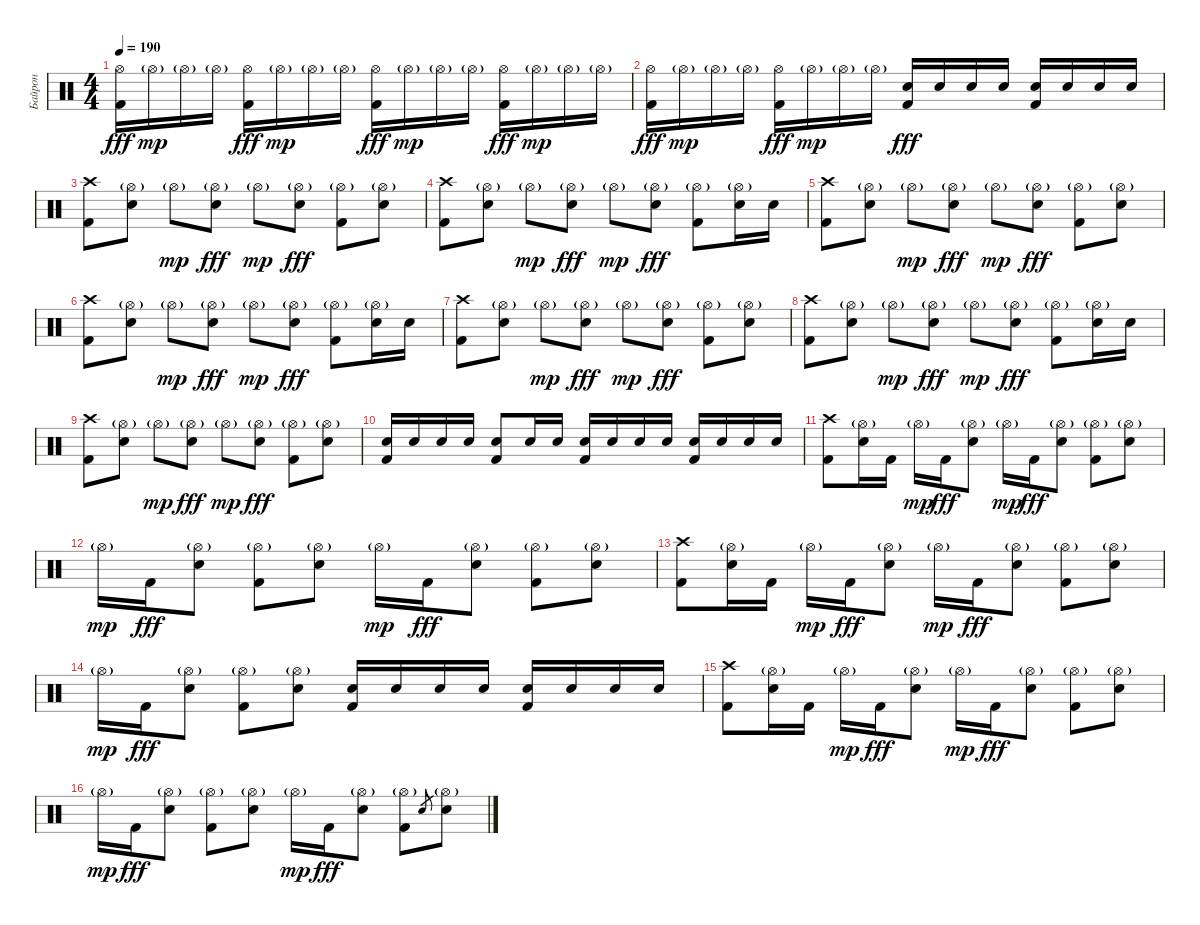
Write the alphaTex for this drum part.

\track ("Байрон" "Байрон") {instrument percussion}
\staff {score}
\articulation defaults
\ts (4 4)
\tempo 190
\clef neutral
\ks c
("Hi-Hat (open)" "Kick (hit) 2").16{dy fff} "Hi-Hat (open)"{g}.16{dy mp} "Hi-Hat (open)"{g}.16 "Hi-Hat (open)"{g}.16 ("Hi-Hat (open)" "Kick (hit) 2").16{dy fff} "Hi-Hat (open)"{g}.16{dy mp} "Hi-Hat (open)"{g}.16 "Hi-Hat (open)"{g}.16 ("Hi-Hat (open)" "Kick (hit) 2").16{dy fff} "Hi-Hat (open)"{g}.16{dy mp} "Hi-Hat (open)"{g}.16 "Hi-Hat (open)"{g}.16 ("Hi-Hat (open)" "Kick (hit) 2").16{dy fff} "Hi-Hat (open)"{g}.16{dy mp} "Hi-Hat (open)"{g}.16 "Hi-Hat (open)"{g}.16 |
("Hi-Hat (open)" "Kick (hit) 2").16{dy fff} "Hi-Hat (open)"{g}.16{dy mp} "Hi-Hat (open)"{g}.16 "Hi-Hat (open)"{g}.16 ("Hi-Hat (open)" "Kick (hit) 2").16{dy fff} "Hi-Hat (open)"{g}.16{dy mp} "Hi-Hat (open)"{g}.16 "Hi-Hat (open)"{g}.16 ("Electric Snare (hit)" "Kick (hit) 2").16{dy fff} "Electric Snare (hit)".16 "Electric Snare (hit)".16 "Electric Snare (hit)".16 ("Electric Snare (hit)" "Kick (hit) 2").16 "Electric Snare (hit)".16 "Electric Snare (hit)".16 "Electric Snare (hit)".16 |
("Crash high (hit)" "Kick (hit) 2").8 ("Hi-Hat (open)"{g} "Electric Snare (hit)").8 "Hi-Hat (open)"{g}.8{dy mp} ("Hi-Hat (open)"{g} "Electric Snare (hit)").8{dy fff} "Hi-Hat (open)"{g}.8{dy mp} ("Hi-Hat (open)"{g} "Electric Snare (hit)").8{dy fff} ("Hi-Hat (open)"{g} "Kick (hit) 2").8 ("Hi-Hat (open)"{g} "Electric Snare (hit)").8 |
("Crash high (hit)" "Kick (hit) 2").8 ("Hi-Hat (open)"{g} "Electric Snare (hit)").8 "Hi-Hat (open)"{g}.8{dy mp} ("Hi-Hat (open)"{g} "Electric Snare (hit)").8{dy fff} "Hi-Hat (open)"{g}.8{dy mp} ("Hi-Hat (open)"{g} "Electric Snare (hit)").8{dy fff} ("Hi-Hat (open)"{g} "Kick (hit) 2").8 ("Hi-Hat (open)"{g} "Electric Snare (hit)").16 "Electric Snare (hit)".16 |
("Crash high (hit)" "Kick (hit) 2").8 ("Hi-Hat (open)"{g} "Electric Snare (hit)").8 "Hi-Hat (open)"{g}.8{dy mp} ("Hi-Hat (open)"{g} "Electric Snare (hit)").8{dy fff} "Hi-Hat (open)"{g}.8{dy mp} ("Hi-Hat (open)"{g} "Electric Snare (hit)").8{dy fff} ("Hi-Hat (open)"{g} "Kick (hit) 2").8 ("Hi-Hat (open)"{g} "Electric Snare (hit)").8 |
("Crash high (hit)" "Kick (hit) 2").8 ("Hi-Hat (open)"{g} "Electric Snare (hit)").8 "Hi-Hat (open)"{g}.8{dy mp} ("Hi-Hat (open)"{g} "Electric Snare (hit)").8{dy fff} "Hi-Hat (open)"{g}.8{dy mp} ("Hi-Hat (open)"{g} "Electric Snare (hit)").8{dy fff} ("Hi-Hat (open)"{g} "Kick (hit) 2").8 ("Hi-Hat (open)"{g} "Electric Snare (hit)").16 "Electric Snare (hit)".16 |
("Crash high (hit)" "Kick (hit) 2").8 ("Hi-Hat (open)"{g} "Electric Snare (hit)").8 "Hi-Hat (open)"{g}.8{dy mp} ("Hi-Hat (open)"{g} "Electric Snare (hit)").8{dy fff} "Hi-Hat (open)"{g}.8{dy mp} ("Hi-Hat (open)"{g} "Electric Snare (hit)").8{dy fff} ("Hi-Hat (open)"{g} "Kick (hit) 2").8 ("Hi-Hat (open)"{g} "Electric Snare (hit)").8 |
("Crash high (hit)" "Kick (hit) 2").8 ("Hi-Hat (open)"{g} "Electric Snare (hit)").8 "Hi-Hat (open)"{g}.8{dy mp} ("Hi-Hat (open)"{g} "Electric Snare (hit)").8{dy fff} "Hi-Hat (open)"{g}.8{dy mp} ("Hi-Hat (open)"{g} "Electric Snare (hit)").8{dy fff} ("Hi-Hat (open)"{g} "Kick (hit) 2").8 ("Hi-Hat (open)"{g} "Electric Snare (hit)").16 "Electric Snare (hit)".16 |
("Crash high (hit)" "Kick (hit) 2").8 ("Hi-Hat (open)"{g} "Electric Snare (hit)").8 "Hi-Hat (open)"{g}.8{dy mp} ("Hi-Hat (open)"{g} "Electric Snare (hit)").8{dy fff} "Hi-Hat (open)"{g}.8{dy mp} ("Hi-Hat (open)"{g} "Electric Snare (hit)").8{dy fff} ("Hi-Hat (open)"{g} "Kick (hit) 2").8 ("Hi-Hat (open)"{g} "Electric Snare (hit)").8 |
("Electric Snare (hit)" "Kick (hit) 2").16 "Electric Snare (hit)".16 "Electric Snare (hit)".16 "Electric Snare (hit)".16 ("Electric Snare (hit)" "Kick (hit) 2").8 "Electric Snare (hit)".16 "Electric Snare (hit)".16 ("Electric Snare (hit)" "Kick (hit) 2").16 "Electric Snare (hit)".16 "Electric Snare (hit)".16 "Electric Snare (hit)".16 ("Electric Snare (hit)" "Kick (hit) 2").16 "Electric Snare (hit)".16 "Electric Snare (hit)".16 "Electric Snare (hit)".16 |
("Crash high (hit)" "Kick (hit) 2").8 ("Hi-Hat (open)"{g} "Electric Snare (hit)").16 "Kick (hit) 2".16 "Hi-Hat (open)"{g}.16{dy mp} "Kick (hit) 2".16{dy fff} ("Hi-Hat (open)"{g} "Electric Snare (hit)").8 "Hi-Hat (open)"{g}.16{dy mp} "Kick (hit) 2".16{dy fff} ("Hi-Hat (open)"{g} "Electric Snare (hit)").8 ("Hi-Hat (open)"{g} "Kick (hit) 2").8 ("Hi-Hat (open)"{g} "Electric Snare (hit)").8 |
"Hi-Hat (open)"{g}.16{dy mp} "Kick (hit) 2".16{dy fff} ("Hi-Hat (open)"{g} "Electric Snare (hit)").8 ("Hi-Hat (open)"{g} "Kick (hit) 2").8 ("Hi-Hat (open)"{g} "Electric Snare (hit)").8 "Hi-Hat (open)"{g}.16{dy mp} "Kick (hit) 2".16{dy fff} ("Hi-Hat (open)"{g} "Electric Snare (hit)").8 ("Hi-Hat (open)"{g} "Kick (hit) 2").8 ("Hi-Hat (open)"{g} "Electric Snare (hit)").8 |
("Crash high (hit)" "Kick (hit) 2").8 ("Hi-Hat (open)"{g} "Electric Snare (hit)").16 "Kick (hit) 2".16 "Hi-Hat (open)"{g}.16{dy mp} "Kick (hit) 2".16{dy fff} ("Hi-Hat (open)"{g} "Electric Snare (hit)").8 "Hi-Hat (open)"{g}.16{dy mp} "Kick (hit) 2".16{dy fff} ("Hi-Hat (open)"{g} "Electric Snare (hit)").8 ("Hi-Hat (open)"{g} "Kick (hit) 2").8 ("Hi-Hat (open)"{g} "Electric Snare (hit)").8 |
"Hi-Hat (open)"{g}.16{dy mp} "Kick (hit) 2".16{dy fff} ("Hi-Hat (open)"{g} "Electric Snare (hit)").8 ("Hi-Hat (open)"{g} "Kick (hit) 2").8 ("Hi-Hat (open)"{g} "Electric Snare (hit)").8 ("Electric Snare (hit)" "Kick (hit) 2").16 "Electric Snare (hit)".16 "Electric Snare (hit)".16 "Electric Snare (hit)".16 ("Electric Snare (hit)" "Kick (hit) 2").16 "Electric Snare (hit)".16 "Electric Snare (hit)".16 "Electric Snare (hit)".16 |
("Crash high (hit)" "Kick (hit) 2").8 ("Hi-Hat (open)"{g} "Electric Snare (hit)").16 "Kick (hit) 2".16 "Hi-Hat (open)"{g}.16{dy mp} "Kick (hit) 2".16{dy fff} ("Hi-Hat (open)"{g} "Electric Snare (hit)").8 "Hi-Hat (open)"{g}.16{dy mp} "Kick (hit) 2".16{dy fff} ("Hi-Hat (open)"{g} "Electric Snare (hit)").8 ("Hi-Hat (open)"{g} "Kick (hit) 2").8 ("Hi-Hat (open)"{g} "Electric Snare (hit)").8 |
"Hi-Hat (open)"{g}.16{dy mp} "Kick (hit) 2".16{dy fff} ("Hi-Hat (open)"{g} "Electric Snare (hit)").8 ("Hi-Hat (open)"{g} "Kick (hit) 2").8 ("Hi-Hat (open)"{g} "Electric Snare (hit)").8 "Hi-Hat (open)"{g}.16{dy mp} "Kick (hit) 2".16{dy fff} ("Hi-Hat (open)"{g} "Electric Snare (hit)").8 ("Hi-Hat (open)"{g} "Kick (hit) 2").8 "Electric Snare (hit)".8{gr} ("Hi-Hat (open)"{g} "Electric Snare (hit)").8
